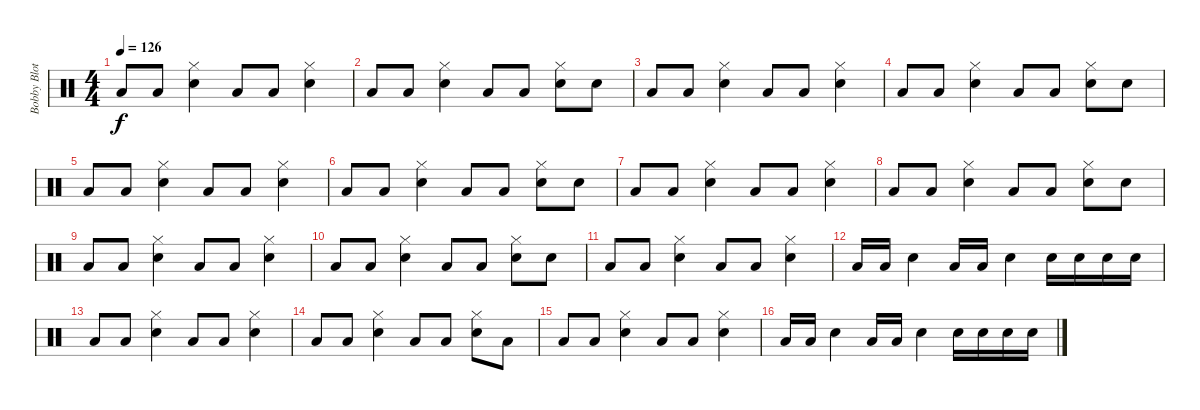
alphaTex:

\track ("Bobby Blotzer" "Bobby Blot") {instrument percussion}
\staff {score}
\articulation defaults
\ts (4 4)
\tempo 126
\clef neutral
\ks c "Low Floor Tom (hit)".8{dy f volume 13} "Low Floor Tom (hit)".8
("Hi-Hat (closed)" "Snare (hit) 2").4 "Low Floor Tom (hit)".8 "Low Floor Tom (hit)".8 ("Hi-Hat (closed)" "Snare (hit) 2").4 |
"Low Floor Tom (hit)".8 "Low Floor Tom (hit)".8 ("Hi-Hat (closed)" "Snare (hit) 2").4 "Low Floor Tom (hit)".8 "Low Floor Tom (hit)".8 ("Hi-Hat (closed)" "Snare (hit) 2").8 "Snare (hit) 2".8 |
"Low Floor Tom (hit)".8{volume 13} "Low Floor Tom (hit)".8 ("Hi-Hat (closed)" "Snare (hit) 2").4 "Low Floor Tom (hit)".8 "Low Floor Tom (hit)".8 ("Hi-Hat (closed)" "Snare (hit) 2").4 |
"Low Floor Tom (hit)".8 "Low Floor Tom (hit)".8 ("Hi-Hat (closed)" "Snare (hit) 2").4 "Low Floor Tom (hit)".8 "Low Floor Tom (hit)".8 ("Hi-Hat (closed)" "Snare (hit) 2").8 "Snare (hit) 2".8 |
"Low Floor Tom (hit)".8{volume 13} "Low Floor Tom (hit)".8 ("Hi-Hat (closed)" "Snare (hit) 2").4 "Low Floor Tom (hit)".8 "Low Floor Tom (hit)".8 ("Hi-Hat (closed)" "Snare (hit) 2").4 |
"Low Floor Tom (hit)".8 "Low Floor Tom (hit)".8 ("Hi-Hat (closed)" "Snare (hit) 2").4 "Low Floor Tom (hit)".8 "Low Floor Tom (hit)".8 ("Hi-Hat (closed)" "Snare (hit) 2").8 "Snare (hit) 2".8 |
"Low Floor Tom (hit)".8{volume 13} "Low Floor Tom (hit)".8 ("Hi-Hat (closed)" "Snare (hit) 2").4 "Low Floor Tom (hit)".8 "Low Floor Tom (hit)".8 ("Hi-Hat (closed)" "Snare (hit) 2").4 |
"Low Floor Tom (hit)".8 "Low Floor Tom (hit)".8 ("Hi-Hat (closed)" "Snare (hit) 2").4 "Low Floor Tom (hit)".8 "Low Floor Tom (hit)".8 ("Hi-Hat (closed)" "Snare (hit) 2").8 "Snare (hit) 2".8 |
"Low Floor Tom (hit)".8{volume 13} "Low Floor Tom (hit)".8 ("Hi-Hat (closed)" "Snare (hit) 2").4 "Low Floor Tom (hit)".8 "Low Floor Tom (hit)".8 ("Hi-Hat (closed)" "Snare (hit) 2").4 |
"Low Floor Tom (hit)".8 "Low Floor Tom (hit)".8 ("Hi-Hat (closed)" "Snare (hit) 2").4 "Low Floor Tom (hit)".8 "Low Floor Tom (hit)".8 ("Hi-Hat (closed)" "Snare (hit) 2").8 "Snare (hit) 2".8 |
"Low Floor Tom (hit)".8{volume 13} "Low Floor Tom (hit)".8 ("Hi-Hat (closed)" "Snare (hit) 2").4 "Low Floor Tom (hit)".8 "Low Floor Tom (hit)".8 ("Hi-Hat (closed)" "Snare (hit) 2").4 |
"Low Floor Tom (hit)".16 "Low Floor Tom (hit)".16 "Snare (hit) 2".4 "Low Floor Tom (hit)".16 "Low Floor Tom (hit)".16 "Snare (hit) 2".4 "Snare (hit) 2".16 "Snare (hit) 2".16 "Snare (hit) 2".16 "Snare (hit) 2".16 |
"Low Floor Tom (hit)".8{volume 13} "Low Floor Tom (hit)".8 ("Hi-Hat (closed)" "Snare (hit) 2").4 "Low Floor Tom (hit)".8 "Low Floor Tom (hit)".8 ("Hi-Hat (closed)" "Snare (hit) 2").4 |
"Low Floor Tom (hit)".8 "Low Floor Tom (hit)".8 ("Hi-Hat (closed)" "Snare (hit) 2").4 "Low Floor Tom (hit)".8 "Low Floor Tom (hit)".8 ("Hi-Hat (closed)" "Snare (hit) 2").8 "Low Floor Tom (hit)".8 |
"Low Floor Tom (hit)".8{volume 13} "Low Floor Tom (hit)".8 ("Hi-Hat (closed)" "Snare (hit) 2").4 "Low Floor Tom (hit)".8 "Low Floor Tom (hit)".8 ("Hi-Hat (closed)" "Snare (hit) 2").4 |
"Low Floor Tom (hit)".16 "Low Floor Tom (hit)".16 "Snare (hit) 2".4 "Low Floor Tom (hit)".16 "Low Floor Tom (hit)".16 "Snare (hit) 2".4 "Snare (hit) 2".16 "Snare (hit) 2".16 "Snare (hit) 2".16 "Snare (hit) 2".16
